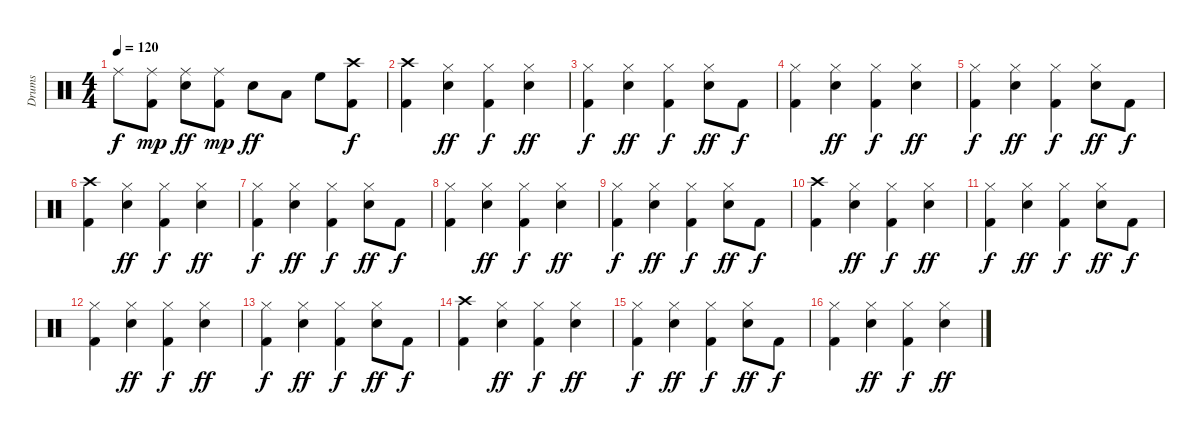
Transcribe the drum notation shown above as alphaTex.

\track ("Drums" "Drums") {instrument percussion}
\staff {score}
\articulation defaults
\ts (4 4)
\tempo 120
\clef neutral
\ks c "Ride (middle)".8{dy f}
("Ride (middle)" "Kick (hit) 2").8{dy mp} ("Snare (hit) 2" "Ride (middle)").8{dy ff} ("Ride (middle)" "Kick (hit) 2").8{dy mp} "Snare (hit) 2".8{dy ff} "Low Floor Tom (hit)".8 "High Floor Tom (hit)".8 ("Crash high (hit)" "Kick (hit) 2").8{dy f} |
("Crash high (hit)" "Kick (hit) 2").4 ("Snare (hit) 2" "Hi-Hat (closed)").4{dy ff} ("Hi-Hat (closed)" "Kick (hit) 2").4{dy f} ("Snare (hit) 2" "Hi-Hat (closed)").4{dy ff} |
("Hi-Hat (closed)" "Kick (hit) 2").4{dy f} ("Snare (hit) 2" "Hi-Hat (closed)").4{dy ff} ("Hi-Hat (closed)" "Kick (hit) 2").4{dy f} ("Snare (hit) 2" "Hi-Hat (closed)").8{dy ff} "Kick (hit) 2".8{dy f} |
("Hi-Hat (closed)" "Kick (hit) 2").4 ("Snare (hit) 2" "Hi-Hat (closed)").4{dy ff} ("Hi-Hat (closed)" "Kick (hit) 2").4{dy f} ("Snare (hit) 2" "Hi-Hat (closed)").4{dy ff} |
("Hi-Hat (closed)" "Kick (hit) 2").4{dy f} ("Snare (hit) 2" "Hi-Hat (closed)").4{dy ff} ("Hi-Hat (closed)" "Kick (hit) 2").4{dy f} ("Snare (hit) 2" "Hi-Hat (closed)").8{dy ff} "Kick (hit) 2".8{dy f} |
("Crash high (hit)" "Kick (hit) 2").4 ("Snare (hit) 2" "Hi-Hat (closed)").4{dy ff} ("Hi-Hat (closed)" "Kick (hit) 2").4{dy f} ("Snare (hit) 2" "Hi-Hat (closed)").4{dy ff} |
("Hi-Hat (closed)" "Kick (hit) 2").4{dy f} ("Snare (hit) 2" "Hi-Hat (closed)").4{dy ff} ("Hi-Hat (closed)" "Kick (hit) 2").4{dy f} ("Snare (hit) 2" "Hi-Hat (closed)").8{dy ff} "Kick (hit) 2".8{dy f} |
("Hi-Hat (closed)" "Kick (hit) 2").4 ("Snare (hit) 2" "Hi-Hat (closed)").4{dy ff} ("Hi-Hat (closed)" "Kick (hit) 2").4{dy f} ("Snare (hit) 2" "Hi-Hat (closed)").4{dy ff} |
("Hi-Hat (closed)" "Kick (hit) 2").4{dy f} ("Snare (hit) 2" "Hi-Hat (closed)").4{dy ff} ("Hi-Hat (closed)" "Kick (hit) 2").4{dy f} ("Snare (hit) 2" "Hi-Hat (closed)").8{dy ff} "Kick (hit) 2".8{dy f} |
("Crash high (hit)" "Kick (hit) 2").4 ("Snare (hit) 2" "Hi-Hat (closed)").4{dy ff} ("Hi-Hat (closed)" "Kick (hit) 2").4{dy f} ("Snare (hit) 2" "Hi-Hat (closed)").4{dy ff} |
("Hi-Hat (closed)" "Kick (hit) 2").4{dy f} ("Snare (hit) 2" "Hi-Hat (closed)").4{dy ff} ("Hi-Hat (closed)" "Kick (hit) 2").4{dy f} ("Snare (hit) 2" "Hi-Hat (closed)").8{dy ff} "Kick (hit) 2".8{dy f} |
("Hi-Hat (closed)" "Kick (hit) 2").4 ("Snare (hit) 2" "Hi-Hat (closed)").4{dy ff} ("Hi-Hat (closed)" "Kick (hit) 2").4{dy f} ("Snare (hit) 2" "Hi-Hat (closed)").4{dy ff} |
("Hi-Hat (closed)" "Kick (hit) 2").4{dy f} ("Snare (hit) 2" "Hi-Hat (closed)").4{dy ff} ("Hi-Hat (closed)" "Kick (hit) 2").4{dy f} ("Snare (hit) 2" "Hi-Hat (closed)").8{dy ff} "Kick (hit) 2".8{dy f} |
("Crash high (hit)" "Kick (hit) 2").4 ("Snare (hit) 2" "Hi-Hat (closed)").4{dy ff} ("Hi-Hat (closed)" "Kick (hit) 2").4{dy f} ("Snare (hit) 2" "Hi-Hat (closed)").4{dy ff} |
("Hi-Hat (closed)" "Kick (hit) 2").4{dy f} ("Snare (hit) 2" "Hi-Hat (closed)").4{dy ff} ("Hi-Hat (closed)" "Kick (hit) 2").4{dy f} ("Snare (hit) 2" "Hi-Hat (closed)").8{dy ff} "Kick (hit) 2".8{dy f} |
("Hi-Hat (closed)" "Kick (hit) 2").4 ("Snare (hit) 2" "Hi-Hat (closed)").4{dy ff} ("Hi-Hat (closed)" "Kick (hit) 2").4{dy f} ("Snare (hit) 2" "Hi-Hat (closed)").4{dy ff}
